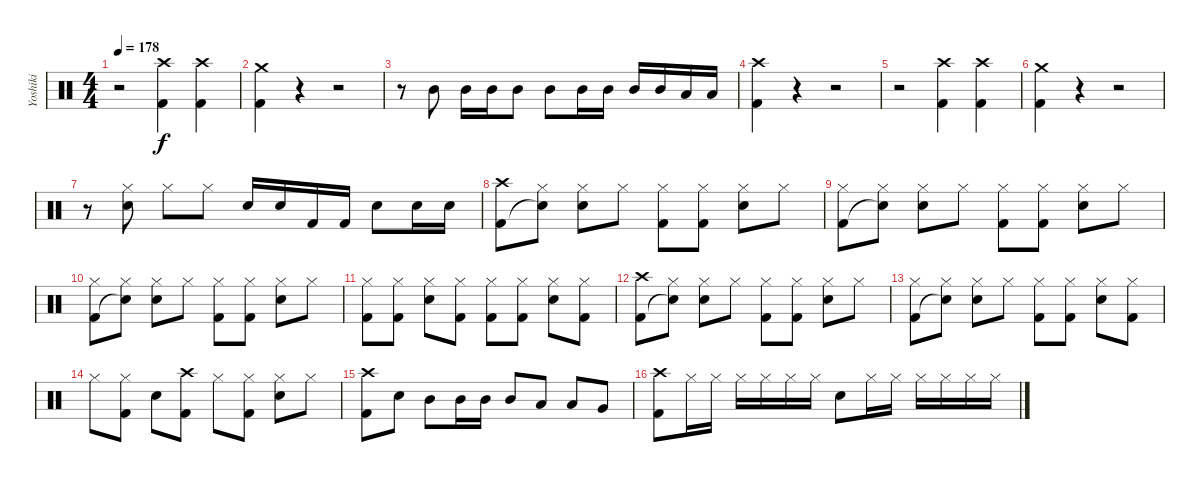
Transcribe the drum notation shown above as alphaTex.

\track ("Yoshiki" "Yoshiki") {instrument percussion}
\staff {score}
\articulation defaults
\ts (4 4)
\tempo 178
\clef neutral
\ks c
r.2{dy f} ("Crash high (hit)" "Kick (hit) 2").4 ("Crash high (hit)" "Kick (hit) 2").4 |
("Crash medium (hit)" "Kick (hit) 2").4 r.4 r.2 |
r.8 "Mid Tom (hit)".8 "Mid Tom (hit)".16 "Mid Tom (hit)".16 "Mid Tom (hit)".8 "Mid Tom (hit)".8 "Mid Tom (hit)".16 "Mid Tom (hit)".16 "Mid Tom (hit)".16 "Mid Tom (hit)".16 "Low Tom (hit)".16 "Low Tom (hit)".16 |
("Crash high (hit)" "Kick (hit) 2").4 r.4 r.2 |
r.2 ("Crash high (hit)" "Kick (hit) 2").4 ("Crash high (hit)" "Kick (hit) 2").4 |
("Crash medium (hit)" "Kick (hit) 2").4 r.4 r.2 |
r.8 ("Hi-Hat (closed)" "Snare (hit) 2").8 "Hi-Hat (closed)".8 "Hi-Hat (closed)".8 "Snare (hit) 2".16 "Snare (hit) 2".16 "Kick (hit) 2".16 "Kick (hit) 2".16 "Snare (hit) 2".8 "Snare (hit) 2".16 "Snare (hit) 2".16 |
("Crash high (hit)" "Kick (hit) 2").8 ("Hi-Hat (closed)" "Snare (hit)"{t}).8 ("Hi-Hat (closed)" "Snare (hit) 2").8 "Hi-Hat (closed)".8 ("Hi-Hat (closed)" "Kick (hit) 2").8 ("Hi-Hat (closed)" "Kick (hit) 2").8 ("Hi-Hat (closed)" "Snare (hit) 2").8 "Hi-Hat (closed)".8 |
("Hi-Hat (closed)" "Kick (hit) 2").8 ("Hi-Hat (closed)" "Snare (hit)"{t}).8 ("Hi-Hat (closed)" "Snare (hit) 2").8 "Hi-Hat (closed)".8 ("Hi-Hat (closed)" "Kick (hit) 2").8 ("Hi-Hat (closed)" "Kick (hit) 2").8 ("Hi-Hat (closed)" "Snare (hit) 2").8 "Hi-Hat (closed)".8 |
("Hi-Hat (closed)" "Kick (hit) 2").8 ("Hi-Hat (closed)" "Snare (hit)"{t}).8 ("Hi-Hat (closed)" "Snare (hit) 2").8 "Hi-Hat (closed)".8 ("Hi-Hat (closed)" "Kick (hit) 2").8 ("Hi-Hat (closed)" "Kick (hit) 2").8 ("Hi-Hat (closed)" "Snare (hit) 2").8 "Hi-Hat (closed)".8 |
("Hi-Hat (closed)" "Kick (hit) 2").8 ("Hi-Hat (closed)" "Kick (hit) 2").8 ("Hi-Hat (closed)" "Snare (hit) 2").8 ("Hi-Hat (closed)" "Kick (hit) 2").8 ("Hi-Hat (closed)" "Kick (hit) 2").8 ("Hi-Hat (closed)" "Kick (hit) 2").8 ("Hi-Hat (closed)" "Snare (hit) 2").8 ("Hi-Hat (closed)" "Kick (hit) 2").8 |
("Crash high (hit)" "Kick (hit) 2").8 ("Hi-Hat (closed)" "Snare (hit)"{t}).8 ("Hi-Hat (closed)" "Snare (hit) 2").8 "Hi-Hat (closed)".8 ("Hi-Hat (closed)" "Kick (hit) 2").8 ("Hi-Hat (closed)" "Kick (hit) 2").8 ("Hi-Hat (closed)" "Snare (hit) 2").8 "Hi-Hat (closed)".8 |
("Hi-Hat (closed)" "Kick (hit) 2").8 ("Hi-Hat (closed)" "Snare (hit)"{t}).8 ("Hi-Hat (closed)" "Snare (hit) 2").8 "Hi-Hat (closed)".8 ("Hi-Hat (closed)" "Kick (hit) 2").8 ("Hi-Hat (closed)" "Kick (hit) 2").8 ("Hi-Hat (closed)" "Snare (hit) 2").8 ("Hi-Hat (closed)" "Kick (hit) 2").8 |
"Hi-Hat (closed)".8 ("Hi-Hat (closed)" "Kick (hit) 2").8 "Snare (hit) 2".8 ("Crash high (hit)" "Kick (hit) 2").8 "Hi-Hat (closed)".8 ("Hi-Hat (closed)" "Kick (hit) 2").8 ("Hi-Hat (closed)" "Snare (hit) 2").8 "Hi-Hat (closed)".8 |
("Crash high (hit)" "Kick (hit) 2").8 "Snare (hit) 2".8 "Mid Tom (hit)".8 "Mid Tom (hit)".16 "Mid Tom (hit)".16 "Mid Tom (hit)".8 "Low Tom (hit)".8 "Low Tom (hit)".8 "Very Low Tom (hit)".8 |
\section ("" "")
("Crash high (hit)" "Kick (hit) 2").8 "Hi-Hat (closed)".16 "Hi-Hat (closed)".16 "Hi-Hat (closed)".16 "Hi-Hat (closed)".16 "Hi-Hat (closed)".16 "Hi-Hat (closed)".16 "Snare (hit) 2".8 "Hi-Hat (closed)".16 "Hi-Hat (closed)".16 "Hi-Hat (closed)".16 "Hi-Hat (closed)".16 "Hi-Hat (closed)".16 "Hi-Hat (closed)".16
